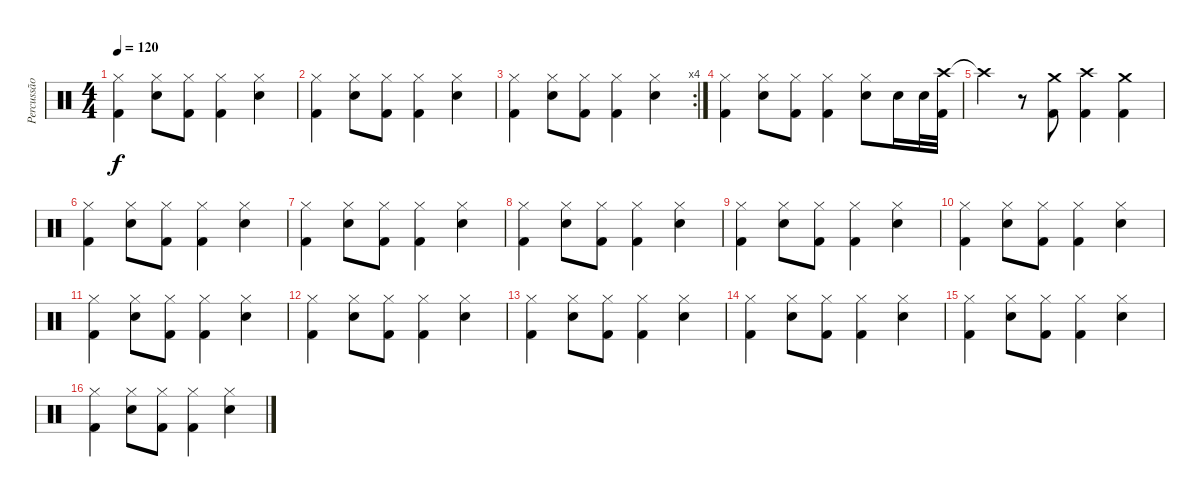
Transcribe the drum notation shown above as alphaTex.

\track ("Percussão" "Percussão") {instrument percussion}
\staff {score}
\articulation defaults
\ts (4 4)
\tempo 120
\clef neutral
\ks c
("Kick (hit) 2" "Hi-Hat (closed)").4{dy f} ("Snare (hit) 2" "Hi-Hat (closed)").8 ("Kick (hit) 2" "Hi-Hat (closed)").8 ("Kick (hit) 2" "Hi-Hat (closed)").4 ("Snare (hit) 2" "Hi-Hat (closed)").4 |
("Kick (hit) 2" "Hi-Hat (closed)").4 ("Snare (hit) 2" "Hi-Hat (closed)").8 ("Kick (hit) 2" "Hi-Hat (closed)").8 ("Kick (hit) 2" "Hi-Hat (closed)").4 ("Snare (hit) 2" "Hi-Hat (closed)").4 |
\rc 4
("Kick (hit) 2" "Hi-Hat (closed)").4 ("Snare (hit) 2" "Hi-Hat (closed)").8 ("Kick (hit) 2" "Hi-Hat (closed)").8 ("Kick (hit) 2" "Hi-Hat (closed)").4 ("Snare (hit) 2" "Hi-Hat (closed)").4 |
("Kick (hit) 2" "Hi-Hat (closed)").4 ("Snare (hit) 2" "Hi-Hat (closed)").8 ("Kick (hit) 2" "Hi-Hat (closed)").8 ("Kick (hit) 2" "Hi-Hat (closed)").4 ("Snare (hit) 2" "Hi-Hat (closed)").8 "Snare (hit) 2".16 "Snare (hit) 2".32 ("Crash high (hit)" "Kick (hit) 2").32 |
"Crash high (hit)"{t}.4 r.8 ("Crash medium (hit)" "Kick (hit) 2").8 ("Crash high (hit)" "Kick (hit) 2").4 ("Crash medium (hit)" "Kick (hit) 2").4 |
("Kick (hit) 2" "Hi-Hat (closed)").4 ("Snare (hit) 2" "Hi-Hat (closed)").8 ("Kick (hit) 2" "Hi-Hat (closed)").8 ("Kick (hit) 2" "Hi-Hat (closed)").4 ("Snare (hit) 2" "Hi-Hat (closed)").4 |
("Kick (hit) 2" "Hi-Hat (closed)").4 ("Snare (hit) 2" "Hi-Hat (closed)").8 ("Kick (hit) 2" "Hi-Hat (closed)").8 ("Kick (hit) 2" "Hi-Hat (closed)").4 ("Snare (hit) 2" "Hi-Hat (closed)").4 |
("Kick (hit) 2" "Hi-Hat (closed)").4 ("Snare (hit) 2" "Hi-Hat (closed)").8 ("Kick (hit) 2" "Hi-Hat (closed)").8 ("Kick (hit) 2" "Hi-Hat (closed)").4 ("Snare (hit) 2" "Hi-Hat (closed)").4 |
("Kick (hit) 2" "Hi-Hat (closed)").4 ("Snare (hit) 2" "Hi-Hat (closed)").8 ("Kick (hit) 2" "Hi-Hat (closed)").8 ("Kick (hit) 2" "Hi-Hat (closed)").4 ("Snare (hit) 2" "Hi-Hat (closed)").4 |
("Kick (hit) 2" "Hi-Hat (closed)").4 ("Snare (hit) 2" "Hi-Hat (closed)").8 ("Kick (hit) 2" "Hi-Hat (closed)").8 ("Kick (hit) 2" "Hi-Hat (closed)").4 ("Snare (hit) 2" "Hi-Hat (closed)").4 |
("Kick (hit) 2" "Hi-Hat (closed)").4 ("Snare (hit) 2" "Hi-Hat (closed)").8 ("Kick (hit) 2" "Hi-Hat (closed)").8 ("Kick (hit) 2" "Hi-Hat (closed)").4 ("Snare (hit) 2" "Hi-Hat (closed)").4 |
("Kick (hit) 2" "Hi-Hat (closed)").4 ("Snare (hit) 2" "Hi-Hat (closed)").8 ("Kick (hit) 2" "Hi-Hat (closed)").8 ("Kick (hit) 2" "Hi-Hat (closed)").4 ("Snare (hit) 2" "Hi-Hat (closed)").4 |
("Kick (hit) 2" "Hi-Hat (closed)").4 ("Snare (hit) 2" "Hi-Hat (closed)").8 ("Kick (hit) 2" "Hi-Hat (closed)").8 ("Kick (hit) 2" "Hi-Hat (closed)").4 ("Snare (hit) 2" "Hi-Hat (closed)").4 |
("Kick (hit) 2" "Hi-Hat (closed)").4 ("Snare (hit) 2" "Hi-Hat (closed)").8 ("Kick (hit) 2" "Hi-Hat (closed)").8 ("Kick (hit) 2" "Hi-Hat (closed)").4 ("Snare (hit) 2" "Hi-Hat (closed)").4 |
("Kick (hit) 2" "Hi-Hat (closed)").4 ("Snare (hit) 2" "Hi-Hat (closed)").8 ("Kick (hit) 2" "Hi-Hat (closed)").8 ("Kick (hit) 2" "Hi-Hat (closed)").4 ("Snare (hit) 2" "Hi-Hat (closed)").4 |
("Kick (hit) 2" "Hi-Hat (closed)").4 ("Snare (hit) 2" "Hi-Hat (closed)").8 ("Kick (hit) 2" "Hi-Hat (closed)").8 ("Kick (hit) 2" "Hi-Hat (closed)").4 ("Snare (hit) 2" "Hi-Hat (closed)").4
